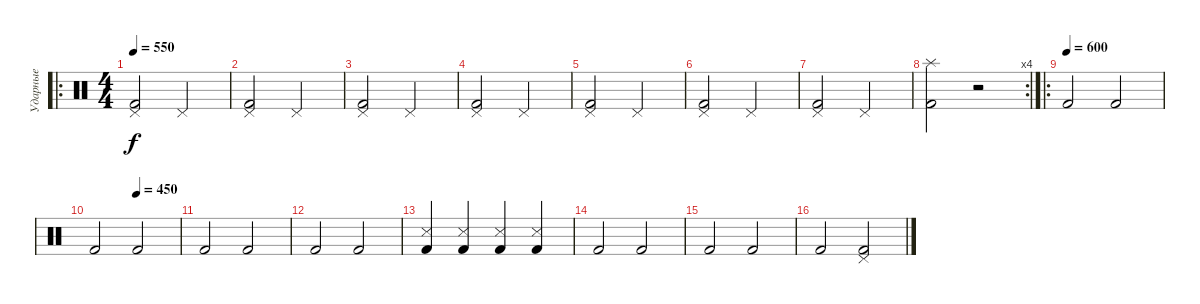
\track ("Ударные" "Ударные") {instrument percussion}
\staff {score}
\articulation defaults
\ro
\ts (4 4)
\tempo 550
\clef neutral
\ks c
("Kick (hit) 2" "Pedal Hi-Hat (hit)").2{dy f} "Pedal Hi-Hat (hit)".2 |
("Kick (hit) 2" "Pedal Hi-Hat (hit)").2 "Pedal Hi-Hat (hit)".2 |
("Kick (hit) 2" "Pedal Hi-Hat (hit)").2 "Pedal Hi-Hat (hit)".2 |
("Kick (hit) 2" "Pedal Hi-Hat (hit)").2 "Pedal Hi-Hat (hit)".2 |
("Kick (hit) 2" "Pedal Hi-Hat (hit)").2 "Pedal Hi-Hat (hit)".2 |
("Kick (hit) 2" "Pedal Hi-Hat (hit)").2 "Pedal Hi-Hat (hit)".2 |
("Kick (hit) 2" "Pedal Hi-Hat (hit)").2 "Pedal Hi-Hat (hit)".2 |
\rc 4
("Kick (hit) 2" "Splash (hit)").2 r.2 |
\ro
\tempo (600)
"Kick (hit) 2".2 "Kick (hit) 2".2 |
\tempo (450 0.5)
"Kick (hit) 2".2 "Kick (hit) 2".2{volume 16} |
"Kick (hit) 2".2 "Kick (hit) 2".2 |
"Kick (hit) 2".2 "Kick (hit) 2".2 |
("Kick (hit) 2" "Metronome (hit)").4 ("Kick (hit) 2" "Metronome (hit)").4 ("Kick (hit) 2" "Metronome (hit)").4 ("Kick (hit) 2" "Metronome (hit)").4 |
"Kick (hit) 2".2 "Kick (hit) 2".2 |
"Kick (hit) 2".2 "Kick (hit) 2".2 |
"Kick (hit) 2".2 ("Kick (hit) 2" "Pedal Hi-Hat (hit)").2
